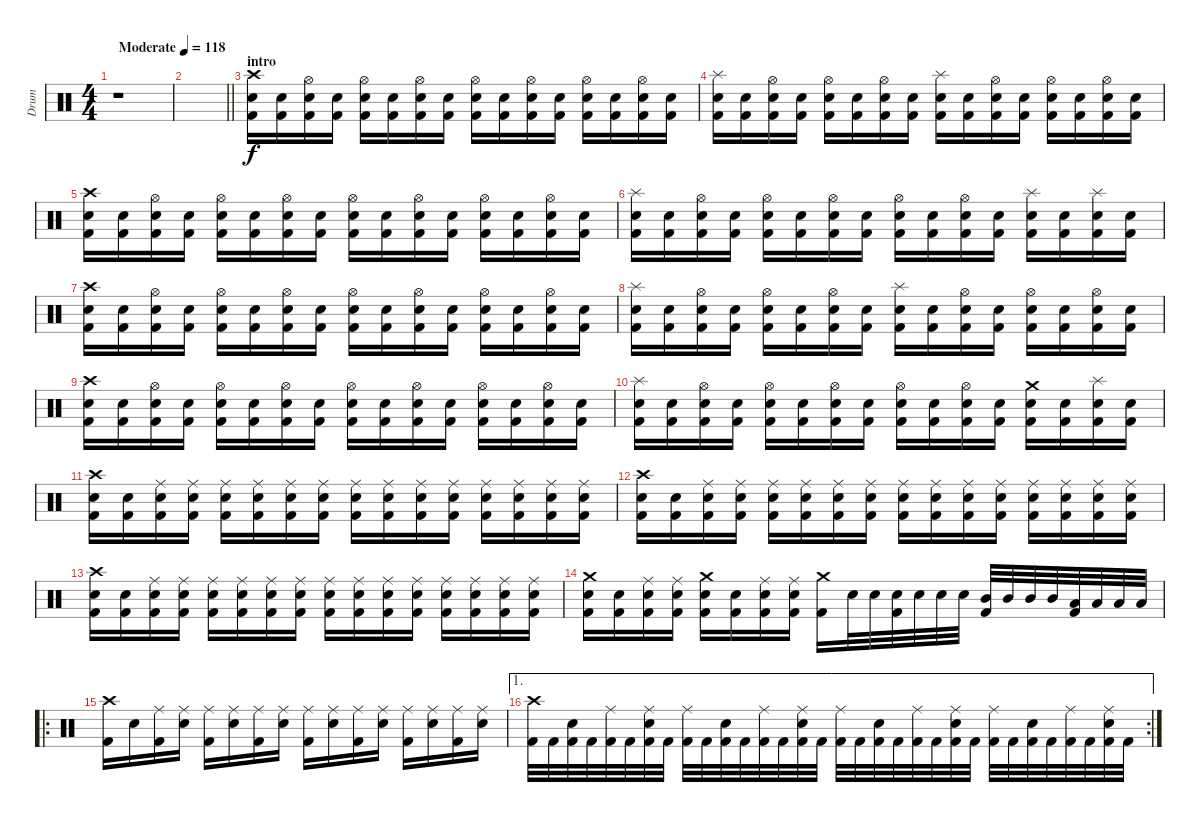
\track ("Drum" "Drum") {instrument percussion}
\staff {score}
\articulation defaults
\ts (4 4)
\tempo (118 "Moderate")
\clef neutral
\ks c
r.1{dy f} |
\barLineRight lightlight
|
\section ("" "intro")
("Crash high (hit)" "Electric Snare (hit)" "Kick (hit) 2").16 ("Electric Snare (hit)" "Kick (hit) 2").16 ("Hi-Hat (open)" "Electric Snare (hit)" "Kick (hit) 2").16 ("Electric Snare (hit)" "Kick (hit) 2").16 ("Hi-Hat (open)" "Electric Snare (hit)" "Kick (hit) 2").16 ("Electric Snare (hit)" "Kick (hit) 2").16 ("Hi-Hat (open)" "Electric Snare (hit)" "Kick (hit) 2").16 ("Electric Snare (hit)" "Kick (hit) 2").16 ("Hi-Hat (open)" "Electric Snare (hit)" "Kick (hit) 2").16 ("Electric Snare (hit)" "Kick (hit) 2").16 ("Hi-Hat (open)" "Electric Snare (hit)" "Kick (hit) 2").16 ("Electric Snare (hit)" "Kick (hit) 2").16 ("Hi-Hat (open)" "Electric Snare (hit)" "Kick (hit) 2").16 ("Electric Snare (hit)" "Kick (hit) 2").16 ("Hi-Hat (open)" "Electric Snare (hit)" "Kick (hit) 2").16 ("Electric Snare (hit)" "Kick (hit) 2").16 |
("Splash (hit)" "Electric Snare (hit)" "Kick (hit) 2").16 ("Electric Snare (hit)" "Kick (hit) 2").16 ("Hi-Hat (open)" "Electric Snare (hit)" "Kick (hit) 2").16 ("Electric Snare (hit)" "Kick (hit) 2").16 ("Hi-Hat (open)" "Electric Snare (hit)" "Kick (hit) 2").16 ("Electric Snare (hit)" "Kick (hit) 2").16 ("Hi-Hat (open)" "Electric Snare (hit)" "Kick (hit) 2").16 ("Electric Snare (hit)" "Kick (hit) 2").16 ("Splash (hit)" "Electric Snare (hit)" "Kick (hit) 2").16 ("Electric Snare (hit)" "Kick (hit) 2").16 ("Hi-Hat (open)" "Electric Snare (hit)" "Kick (hit) 2").16 ("Electric Snare (hit)" "Kick (hit) 2").16 ("Hi-Hat (open)" "Electric Snare (hit)" "Kick (hit) 2").16 ("Electric Snare (hit)" "Kick (hit) 2").16 ("Hi-Hat (open)" "Electric Snare (hit)" "Kick (hit) 2").16 ("Electric Snare (hit)" "Kick (hit) 2").16 |
("Crash high (hit)" "Electric Snare (hit)" "Kick (hit) 2").16 ("Electric Snare (hit)" "Kick (hit) 2").16 ("Hi-Hat (open)" "Electric Snare (hit)" "Kick (hit) 2").16 ("Electric Snare (hit)" "Kick (hit) 2").16 ("Hi-Hat (open)" "Electric Snare (hit)" "Kick (hit) 2").16 ("Electric Snare (hit)" "Kick (hit) 2").16 ("Hi-Hat (open)" "Electric Snare (hit)" "Kick (hit) 2").16 ("Electric Snare (hit)" "Kick (hit) 2").16 ("Hi-Hat (open)" "Electric Snare (hit)" "Kick (hit) 2").16 ("Electric Snare (hit)" "Kick (hit) 2").16 ("Hi-Hat (open)" "Electric Snare (hit)" "Kick (hit) 2").16 ("Electric Snare (hit)" "Kick (hit) 2").16 ("Hi-Hat (open)" "Electric Snare (hit)" "Kick (hit) 2").16 ("Electric Snare (hit)" "Kick (hit) 2").16 ("Hi-Hat (open)" "Electric Snare (hit)" "Kick (hit) 2").16 ("Electric Snare (hit)" "Kick (hit) 2").16 |
("Splash (hit)" "Electric Snare (hit)" "Kick (hit) 2").16 ("Electric Snare (hit)" "Kick (hit) 2").16 ("Hi-Hat (open)" "Electric Snare (hit)" "Kick (hit) 2").16 ("Electric Snare (hit)" "Kick (hit) 2").16 ("Hi-Hat (open)" "Electric Snare (hit)" "Kick (hit) 2").16 ("Electric Snare (hit)" "Kick (hit) 2").16 ("Hi-Hat (open)" "Electric Snare (hit)" "Kick (hit) 2").16 ("Electric Snare (hit)" "Kick (hit) 2").16 ("Hi-Hat (open)" "Electric Snare (hit)" "Kick (hit) 2").16 ("Electric Snare (hit)" "Kick (hit) 2").16 ("Hi-Hat (open)" "Electric Snare (hit)" "Kick (hit) 2").16 ("Electric Snare (hit)" "Kick (hit) 2").16 ("Splash (hit)" "Electric Snare (hit)" "Kick (hit) 2").16 ("Electric Snare (hit)" "Kick (hit) 2").16 ("Splash (hit)" "Electric Snare (hit)" "Kick (hit) 2").16 ("Electric Snare (hit)" "Kick (hit) 2").16 |
("Crash high (hit)" "Electric Snare (hit)" "Kick (hit) 2").16 ("Electric Snare (hit)" "Kick (hit) 2").16 ("Hi-Hat (open)" "Electric Snare (hit)" "Kick (hit) 2").16 ("Electric Snare (hit)" "Kick (hit) 2").16 ("Hi-Hat (open)" "Electric Snare (hit)" "Kick (hit) 2").16 ("Electric Snare (hit)" "Kick (hit) 2").16 ("Hi-Hat (open)" "Electric Snare (hit)" "Kick (hit) 2").16 ("Electric Snare (hit)" "Kick (hit) 2").16 ("Hi-Hat (open)" "Electric Snare (hit)" "Kick (hit) 2").16 ("Electric Snare (hit)" "Kick (hit) 2").16 ("Hi-Hat (open)" "Electric Snare (hit)" "Kick (hit) 2").16 ("Electric Snare (hit)" "Kick (hit) 2").16 ("Hi-Hat (open)" "Electric Snare (hit)" "Kick (hit) 2").16 ("Electric Snare (hit)" "Kick (hit) 2").16 ("Hi-Hat (open)" "Electric Snare (hit)" "Kick (hit) 2").16 ("Electric Snare (hit)" "Kick (hit) 2").16 |
("Splash (hit)" "Electric Snare (hit)" "Kick (hit) 2").16 ("Electric Snare (hit)" "Kick (hit) 2").16 ("Hi-Hat (open)" "Electric Snare (hit)" "Kick (hit) 2").16 ("Electric Snare (hit)" "Kick (hit) 2").16 ("Hi-Hat (open)" "Electric Snare (hit)" "Kick (hit) 2").16 ("Electric Snare (hit)" "Kick (hit) 2").16 ("Hi-Hat (open)" "Electric Snare (hit)" "Kick (hit) 2").16 ("Electric Snare (hit)" "Kick (hit) 2").16 ("Splash (hit)" "Electric Snare (hit)" "Kick (hit) 2").16 ("Electric Snare (hit)" "Kick (hit) 2").16 ("Hi-Hat (open)" "Electric Snare (hit)" "Kick (hit) 2").16 ("Electric Snare (hit)" "Kick (hit) 2").16 ("Hi-Hat (open)" "Electric Snare (hit)" "Kick (hit) 2").16 ("Electric Snare (hit)" "Kick (hit) 2").16 ("Hi-Hat (open)" "Electric Snare (hit)" "Kick (hit) 2").16 ("Electric Snare (hit)" "Kick (hit) 2").16 |
("Crash high (hit)" "Electric Snare (hit)" "Kick (hit) 2").16 ("Electric Snare (hit)" "Kick (hit) 2").16 ("Hi-Hat (open)" "Electric Snare (hit)" "Kick (hit) 2").16 ("Electric Snare (hit)" "Kick (hit) 2").16 ("Hi-Hat (open)" "Electric Snare (hit)" "Kick (hit) 2").16 ("Electric Snare (hit)" "Kick (hit) 2").16 ("Hi-Hat (open)" "Electric Snare (hit)" "Kick (hit) 2").16 ("Electric Snare (hit)" "Kick (hit) 2").16 ("Hi-Hat (open)" "Electric Snare (hit)" "Kick (hit) 2").16 ("Electric Snare (hit)" "Kick (hit) 2").16 ("Hi-Hat (open)" "Electric Snare (hit)" "Kick (hit) 2").16 ("Electric Snare (hit)" "Kick (hit) 2").16 ("Hi-Hat (open)" "Electric Snare (hit)" "Kick (hit) 2").16 ("Electric Snare (hit)" "Kick (hit) 2").16 ("Hi-Hat (open)" "Electric Snare (hit)" "Kick (hit) 2").16 ("Electric Snare (hit)" "Kick (hit) 2").16 |
("Splash (hit)" "Electric Snare (hit)" "Kick (hit) 2").16 ("Electric Snare (hit)" "Kick (hit) 2").16 ("Hi-Hat (open)" "Electric Snare (hit)" "Kick (hit) 2").16 ("Electric Snare (hit)" "Kick (hit) 2").16 ("Hi-Hat (open)" "Electric Snare (hit)" "Kick (hit) 2").16 ("Electric Snare (hit)" "Kick (hit) 2").16 ("Hi-Hat (open)" "Electric Snare (hit)" "Kick (hit) 2").16 ("Electric Snare (hit)" "Kick (hit) 2").16 ("Hi-Hat (open)" "Electric Snare (hit)" "Kick (hit) 2").16 ("Electric Snare (hit)" "Kick (hit) 2").16 ("Hi-Hat (open)" "Electric Snare (hit)" "Kick (hit) 2").16 ("Electric Snare (hit)" "Kick (hit) 2").16 ("Crash medium (hit)" "Electric Snare (hit)" "Kick (hit) 2").16 ("Electric Snare (hit)" "Kick (hit) 2").16 ("Splash (hit)" "Electric Snare (hit)" "Kick (hit) 2").16 ("Electric Snare (hit)" "Kick (hit) 2").16 |
("Crash high (hit)" "Electric Snare (hit)" "Kick (hit) 2").16 ("Electric Snare (hit)" "Kick (hit) 2").16 ("Ride (middle)" "Electric Snare (hit)" "Kick (hit) 2").16 ("Ride (middle)" "Electric Snare (hit)" "Kick (hit) 2").16 ("Ride (middle)" "Electric Snare (hit)" "Kick (hit) 2").16 ("Ride (middle)" "Electric Snare (hit)" "Kick (hit) 2").16 ("Ride (middle)" "Electric Snare (hit)" "Kick (hit) 2").16 ("Ride (middle)" "Electric Snare (hit)" "Kick (hit) 2").16 ("Ride (middle)" "Electric Snare (hit)" "Kick (hit) 2").16 ("Ride (middle)" "Electric Snare (hit)" "Kick (hit) 2").16 ("Ride (middle)" "Electric Snare (hit)" "Kick (hit) 2").16 ("Ride (middle)" "Electric Snare (hit)" "Kick (hit) 2").16 ("Ride (middle)" "Electric Snare (hit)" "Kick (hit) 2").16 ("Ride (middle)" "Electric Snare (hit)" "Kick (hit) 2").16 ("Ride (middle)" "Electric Snare (hit)" "Kick (hit) 2").16 ("Ride (middle)" "Electric Snare (hit)" "Kick (hit) 2").16 |
("Crash high (hit)" "Electric Snare (hit)" "Kick (hit) 2").16 ("Electric Snare (hit)" "Kick (hit) 2").16 ("Ride (middle)" "Electric Snare (hit)" "Kick (hit) 2").16 ("Ride (middle)" "Electric Snare (hit)" "Kick (hit) 2").16 ("Ride (middle)" "Electric Snare (hit)" "Kick (hit) 2").16 ("Ride (middle)" "Electric Snare (hit)" "Kick (hit) 2").16 ("Ride (middle)" "Electric Snare (hit)" "Kick (hit) 2").16 ("Ride (middle)" "Electric Snare (hit)" "Kick (hit) 2").16 ("Ride (middle)" "Electric Snare (hit)" "Kick (hit) 2").16 ("Ride (middle)" "Electric Snare (hit)" "Kick (hit) 2").16 ("Ride (middle)" "Electric Snare (hit)" "Kick (hit) 2").16 ("Ride (middle)" "Electric Snare (hit)" "Kick (hit) 2").16 ("Ride (middle)" "Electric Snare (hit)" "Kick (hit) 2").16 ("Ride (middle)" "Electric Snare (hit)" "Kick (hit) 2").16 ("Ride (middle)" "Electric Snare (hit)" "Kick (hit) 2").16 ("Ride (middle)" "Electric Snare (hit)" "Kick (hit) 2").16 |
("Crash high (hit)" "Electric Snare (hit)" "Kick (hit) 2").16 ("Electric Snare (hit)" "Kick (hit) 2").16 ("Ride (middle)" "Electric Snare (hit)" "Kick (hit) 2").16 ("Ride (middle)" "Electric Snare (hit)" "Kick (hit) 2").16 ("Ride (middle)" "Electric Snare (hit)" "Kick (hit) 2").16 ("Ride (middle)" "Electric Snare (hit)" "Kick (hit) 2").16 ("Ride (middle)" "Electric Snare (hit)" "Kick (hit) 2").16 ("Ride (middle)" "Electric Snare (hit)" "Kick (hit) 2").16 ("Ride (middle)" "Electric Snare (hit)" "Kick (hit) 2").16 ("Ride (middle)" "Electric Snare (hit)" "Kick (hit) 2").16 ("Ride (middle)" "Electric Snare (hit)" "Kick (hit) 2").16 ("Ride (middle)" "Electric Snare (hit)" "Kick (hit) 2").16 ("Ride (middle)" "Electric Snare (hit)" "Kick (hit) 2").16 ("Ride (middle)" "Electric Snare (hit)" "Kick (hit) 2").16 ("Ride (middle)" "Electric Snare (hit)" "Kick (hit) 2").16 ("Ride (middle)" "Electric Snare (hit)" "Kick (hit) 2").16 |
("Crash medium (hit)" "Electric Snare (hit)" "Kick (hit) 2").16 ("Electric Snare (hit)" "Kick (hit) 2").16 ("Ride (middle)" "Electric Snare (hit)" "Kick (hit) 2").16 ("Ride (middle)" "Electric Snare (hit)" "Kick (hit) 2").16 ("Crash medium (hit)" "Electric Snare (hit)" "Kick (hit) 2").16 ("Electric Snare (hit)" "Kick (hit) 2").16 ("Ride (middle)" "Electric Snare (hit)" "Kick (hit) 2").16 ("Ride (middle)" "Electric Snare (hit)" "Kick (hit) 2").16 ("Crash medium (hit)" "Kick (hit) 2").16 "Electric Snare (hit)".32 "Electric Snare (hit)".32 ("Electric Snare (hit)" "Kick (hit) 2").32 "Electric Snare (hit)".32 "Electric Snare (hit)".32 "Electric Snare (hit)".32 ("Mid Tom (hit)" "Kick (hit) 2").32 "Mid Tom (hit)".32 "Mid Tom (hit)".32 "Mid Tom (hit)".32 ("Low Tom (hit)" "Kick (hit) 2").32 "Low Tom (hit)".32 "Low Tom (hit)".32 "Low Tom (hit)".32 |
\ro
("Crash high (hit)" "Kick (hit) 2").16 "Electric Snare (hit)".16 ("Ride (middle)" "Kick (hit) 2").16 ("Ride (middle)" "Electric Snare (hit)").16 ("Ride (middle)" "Kick (hit) 2").16 ("Ride (middle)" "Electric Snare (hit)").16 ("Ride (middle)" "Kick (hit) 2").16 ("Ride (middle)" "Electric Snare (hit)").16 ("Ride (middle)" "Kick (hit) 2").16 ("Ride (middle)" "Electric Snare (hit)").16 ("Ride (middle)" "Kick (hit) 2").16 ("Ride (middle)" "Electric Snare (hit)").16 ("Ride (middle)" "Kick (hit) 2").16 ("Ride (middle)" "Electric Snare (hit)").16 ("Ride (middle)" "Kick (hit) 2").16 ("Ride (middle)" "Electric Snare (hit)").16 |
\ae 1
\rc 2
("Crash high (hit)" "Kick (hit) 2").32 "Kick (hit) 2".32 ("Electric Snare (hit)" "Kick (hit) 2").32 "Kick (hit) 2".32 ("Ride (middle)" "Kick (hit) 2").32 "Kick (hit) 2".32 ("Ride (middle)" "Electric Snare (hit)" "Kick (hit) 2").32 "Kick (hit) 2".32 ("Ride (middle)" "Kick (hit) 2").32 "Kick (hit) 2".32 ("Electric Snare (hit)" "Kick (hit) 2").32 "Kick (hit) 2".32 ("Ride (middle)" "Kick (hit) 2").32 "Kick (hit) 2".32 ("Ride (middle)" "Electric Snare (hit)" "Kick (hit) 2").32 "Kick (hit) 2".32 ("Ride (middle)" "Kick (hit) 2").32 "Kick (hit) 2".32 ("Electric Snare (hit)" "Kick (hit) 2").32 "Kick (hit) 2".32 ("Ride (middle)" "Kick (hit) 2").32 "Kick (hit) 2".32 ("Ride (middle)" "Electric Snare (hit)" "Kick (hit) 2").32 "Kick (hit) 2".32 ("Ride (middle)" "Kick (hit) 2").32 "Kick (hit) 2".32 ("Electric Snare (hit)" "Kick (hit) 2").32 "Kick (hit) 2".32 ("Ride (middle)" "Kick (hit) 2").32 "Kick (hit) 2".32 ("Ride (middle)" "Electric Snare (hit)" "Kick (hit) 2").32 "Kick (hit) 2".32
